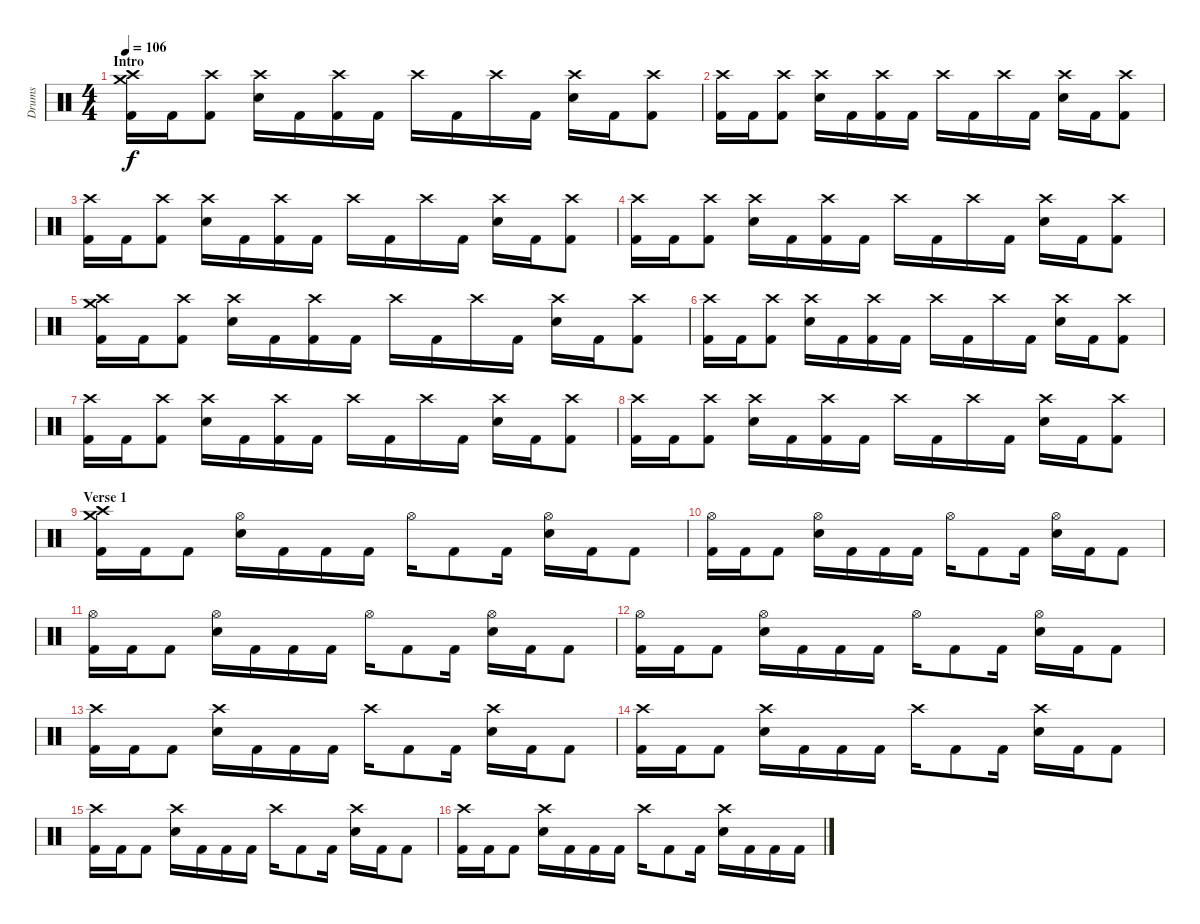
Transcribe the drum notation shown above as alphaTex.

\track ("Drums" "Drums") {instrument percussion}
\staff {score}
\articulation defaults
\ts (4 4)
\section ("" "Intro")
\tempo 106
\clef neutral
\ks c
("Crash high (hit)" "Crash medium (hit)" "Kick (hit) 2").16{dy f} "Kick (hit) 2".16 ("Crash high (hit)" "Kick (hit) 2").8 ("Crash high (hit)" "Electric Snare (hit)").16 "Kick (hit) 2".16 ("Crash high (hit)" "Kick (hit) 2").16 "Kick (hit) 2".16 "Crash high (hit)".16 "Kick (hit) 2".16 "Crash high (hit)".16 "Kick (hit) 2".16 ("Crash high (hit)" "Electric Snare (hit)").16 "Kick (hit) 2".16 ("Crash high (hit)" "Kick (hit) 2").8 |
("Crash high (hit)" "Kick (hit) 2").16 "Kick (hit) 2".16 ("Crash high (hit)" "Kick (hit) 2").8 ("Crash high (hit)" "Electric Snare (hit)").16 "Kick (hit) 2".16 ("Crash high (hit)" "Kick (hit) 2").16 "Kick (hit) 2".16 "Crash high (hit)".16 "Kick (hit) 2".16 "Crash high (hit)".16 "Kick (hit) 2".16 ("Crash high (hit)" "Electric Snare (hit)").16 "Kick (hit) 2".16 ("Crash high (hit)" "Kick (hit) 2").8 |
("Crash high (hit)" "Kick (hit) 2").16 "Kick (hit) 2".16 ("Crash high (hit)" "Kick (hit) 2").8 ("Crash high (hit)" "Electric Snare (hit)").16 "Kick (hit) 2".16 ("Crash high (hit)" "Kick (hit) 2").16 "Kick (hit) 2".16 "Crash high (hit)".16 "Kick (hit) 2".16 "Crash high (hit)".16 "Kick (hit) 2".16 ("Crash high (hit)" "Electric Snare (hit)").16 "Kick (hit) 2".16 ("Crash high (hit)" "Kick (hit) 2").8 |
("Crash high (hit)" "Kick (hit) 2").16 "Kick (hit) 2".16 ("Crash high (hit)" "Kick (hit) 2").8 ("Crash high (hit)" "Electric Snare (hit)").16 "Kick (hit) 2".16 ("Crash high (hit)" "Kick (hit) 2").16 "Kick (hit) 2".16 "Crash high (hit)".16 "Kick (hit) 2".16 "Crash high (hit)".16 "Kick (hit) 2".16 ("Crash high (hit)" "Electric Snare (hit)").16 "Kick (hit) 2".16 ("Crash high (hit)" "Kick (hit) 2").8 |
("Crash high (hit)" "Crash medium (hit)" "Kick (hit) 2").16 "Kick (hit) 2".16 ("Crash high (hit)" "Kick (hit) 2").8 ("Crash high (hit)" "Electric Snare (hit)").16 "Kick (hit) 2".16 ("Crash high (hit)" "Kick (hit) 2").16 "Kick (hit) 2".16 "Crash high (hit)".16 "Kick (hit) 2".16 "Crash high (hit)".16 "Kick (hit) 2".16 ("Crash high (hit)" "Electric Snare (hit)").16 "Kick (hit) 2".16 ("Crash high (hit)" "Kick (hit) 2").8 |
("Crash high (hit)" "Kick (hit) 2").16 "Kick (hit) 2".16 ("Crash high (hit)" "Kick (hit) 2").8 ("Crash high (hit)" "Electric Snare (hit)").16 "Kick (hit) 2".16 ("Crash high (hit)" "Kick (hit) 2").16 "Kick (hit) 2".16 "Crash high (hit)".16 "Kick (hit) 2".16 "Crash high (hit)".16 "Kick (hit) 2".16 ("Crash high (hit)" "Electric Snare (hit)").16 "Kick (hit) 2".16 ("Crash high (hit)" "Kick (hit) 2").8 |
("Crash high (hit)" "Kick (hit) 2").16 "Kick (hit) 2".16 ("Crash high (hit)" "Kick (hit) 2").8 ("Crash high (hit)" "Electric Snare (hit)").16 "Kick (hit) 2".16 ("Crash high (hit)" "Kick (hit) 2").16 "Kick (hit) 2".16 "Crash high (hit)".16 "Kick (hit) 2".16 "Crash high (hit)".16 "Kick (hit) 2".16 ("Crash high (hit)" "Electric Snare (hit)").16 "Kick (hit) 2".16 ("Crash high (hit)" "Kick (hit) 2").8 |
("Crash high (hit)" "Kick (hit) 2").16 "Kick (hit) 2".16 ("Crash high (hit)" "Kick (hit) 2").8 ("Crash high (hit)" "Electric Snare (hit)").16 "Kick (hit) 2".16 ("Crash high (hit)" "Kick (hit) 2").16 "Kick (hit) 2".16 "Crash high (hit)".16 "Kick (hit) 2".16 "Crash high (hit)".16 "Kick (hit) 2".16 ("Crash high (hit)" "Electric Snare (hit)").16 "Kick (hit) 2".16 ("Crash high (hit)" "Kick (hit) 2").8 |
\section ("" "Verse 1")
("Crash high (hit)" "Crash medium (hit)" "Kick (hit) 2").16 "Kick (hit) 2".16 "Kick (hit) 2".8 ("Hi-Hat (open)" "Electric Snare (hit)").16 "Kick (hit) 2".16 "Kick (hit) 2".16 "Kick (hit) 2".16 "Hi-Hat (open)".16 "Kick (hit) 2".8 "Kick (hit) 2".16 ("Hi-Hat (open)" "Electric Snare (hit)").16 "Kick (hit) 2".16 "Kick (hit) 2".8 |
("Hi-Hat (open)" "Kick (hit) 2").16 "Kick (hit) 2".16 "Kick (hit) 2".8 ("Hi-Hat (open)" "Electric Snare (hit)").16 "Kick (hit) 2".16 "Kick (hit) 2".16 "Kick (hit) 2".16 "Hi-Hat (open)".16 "Kick (hit) 2".8 "Kick (hit) 2".16 ("Hi-Hat (open)" "Electric Snare (hit)").16 "Kick (hit) 2".16 "Kick (hit) 2".8 |
("Hi-Hat (open)" "Kick (hit) 2").16 "Kick (hit) 2".16 "Kick (hit) 2".8 ("Hi-Hat (open)" "Electric Snare (hit)").16 "Kick (hit) 2".16 "Kick (hit) 2".16 "Kick (hit) 2".16 "Hi-Hat (open)".16 "Kick (hit) 2".8 "Kick (hit) 2".16 ("Hi-Hat (open)" "Electric Snare (hit)").16 "Kick (hit) 2".16 "Kick (hit) 2".8 |
("Hi-Hat (open)" "Kick (hit) 2").16 "Kick (hit) 2".16 "Kick (hit) 2".8 ("Hi-Hat (open)" "Electric Snare (hit)").16 "Kick (hit) 2".16 "Kick (hit) 2".16 "Kick (hit) 2".16 "Hi-Hat (open)".16 "Kick (hit) 2".8 "Kick (hit) 2".16 ("Hi-Hat (open)" "Electric Snare (hit)").16 "Kick (hit) 2".16 "Kick (hit) 2".8 |
("Crash high (hit)" "Kick (hit) 2").16 "Kick (hit) 2".16 "Kick (hit) 2".8 ("Crash high (hit)" "Electric Snare (hit)").16 "Kick (hit) 2".16 "Kick (hit) 2".16 "Kick (hit) 2".16 "Crash high (hit)".16 "Kick (hit) 2".8 "Kick (hit) 2".16 ("Crash high (hit)" "Electric Snare (hit)").16 "Kick (hit) 2".16 "Kick (hit) 2".8 |
("Crash high (hit)" "Kick (hit) 2").16 "Kick (hit) 2".16 "Kick (hit) 2".8 ("Crash high (hit)" "Electric Snare (hit)").16 "Kick (hit) 2".16 "Kick (hit) 2".16 "Kick (hit) 2".16 "Crash high (hit)".16 "Kick (hit) 2".8 "Kick (hit) 2".16 ("Crash high (hit)" "Electric Snare (hit)").16 "Kick (hit) 2".16 "Kick (hit) 2".8 |
("Crash high (hit)" "Kick (hit) 2").16 "Kick (hit) 2".16 "Kick (hit) 2".8 ("Crash high (hit)" "Electric Snare (hit)").16 "Kick (hit) 2".16 "Kick (hit) 2".16 "Kick (hit) 2".16 "Crash high (hit)".16 "Kick (hit) 2".8 "Kick (hit) 2".16 ("Crash high (hit)" "Electric Snare (hit)").16 "Kick (hit) 2".16 "Kick (hit) 2".8 |
("Crash high (hit)" "Kick (hit) 2").16 "Kick (hit) 2".16 "Kick (hit) 2".8 ("Crash high (hit)" "Electric Snare (hit)").16 "Kick (hit) 2".16 "Kick (hit) 2".16 "Kick (hit) 2".16 "Crash high (hit)".16 "Kick (hit) 2".8 "Kick (hit) 2".16 ("Crash high (hit)" "Electric Snare (hit)").16 "Kick (hit) 2".16 "Kick (hit) 2".16 "Kick (hit) 2".16
